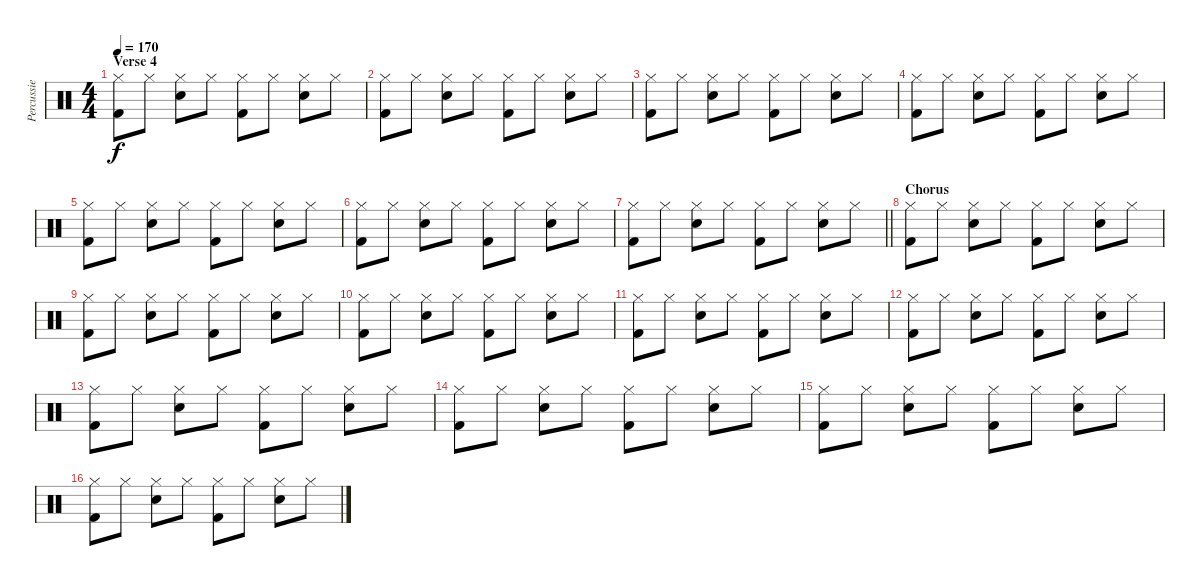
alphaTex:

\track ("Percussie" "Percussie") {instrument percussion}
\staff {score}
\articulation defaults
\ts (4 4)
\section ("" "Verse 4")
\tempo 170
\clef neutral
\ks c
("Hi-Hat (closed)" "Kick (hit) 2").8{dy f} "Hi-Hat (closed)".8 ("Hi-Hat (closed)" "Electric Snare (hit)").8 "Hi-Hat (closed)".8 ("Hi-Hat (closed)" "Kick (hit) 2").8 "Hi-Hat (closed)".8 ("Hi-Hat (closed)" "Electric Snare (hit)").8 "Hi-Hat (closed)".8 |
("Hi-Hat (closed)" "Kick (hit) 2").8 "Hi-Hat (closed)".8 ("Hi-Hat (closed)" "Electric Snare (hit)").8 "Hi-Hat (closed)".8 ("Hi-Hat (closed)" "Kick (hit) 2").8 "Hi-Hat (closed)".8 ("Hi-Hat (closed)" "Electric Snare (hit)").8 "Hi-Hat (closed)".8 |
("Hi-Hat (closed)" "Kick (hit) 2").8 "Hi-Hat (closed)".8 ("Hi-Hat (closed)" "Electric Snare (hit)").8 "Hi-Hat (closed)".8 ("Hi-Hat (closed)" "Kick (hit) 2").8 "Hi-Hat (closed)".8 ("Hi-Hat (closed)" "Electric Snare (hit)").8 "Hi-Hat (closed)".8 |
("Hi-Hat (closed)" "Kick (hit) 2").8 "Hi-Hat (closed)".8 ("Hi-Hat (closed)" "Electric Snare (hit)").8 "Hi-Hat (closed)".8 ("Hi-Hat (closed)" "Kick (hit) 2").8 "Hi-Hat (closed)".8 ("Hi-Hat (closed)" "Electric Snare (hit)").8 "Hi-Hat (closed)".8 |
("Hi-Hat (closed)" "Kick (hit) 2").8 "Hi-Hat (closed)".8 ("Hi-Hat (closed)" "Electric Snare (hit)").8 "Hi-Hat (closed)".8 ("Hi-Hat (closed)" "Kick (hit) 2").8 "Hi-Hat (closed)".8 ("Hi-Hat (closed)" "Electric Snare (hit)").8 "Hi-Hat (closed)".8 |
("Hi-Hat (closed)" "Kick (hit) 2").8 "Hi-Hat (closed)".8 ("Hi-Hat (closed)" "Electric Snare (hit)").8 "Hi-Hat (closed)".8 ("Hi-Hat (closed)" "Kick (hit) 2").8 "Hi-Hat (closed)".8 ("Hi-Hat (closed)" "Electric Snare (hit)").8 "Hi-Hat (closed)".8 |
\barLineRight lightlight
("Hi-Hat (closed)" "Kick (hit) 2").8 "Hi-Hat (closed)".8 ("Hi-Hat (closed)" "Electric Snare (hit)").8 "Hi-Hat (closed)".8 ("Hi-Hat (closed)" "Kick (hit) 2").8 "Hi-Hat (closed)".8 ("Hi-Hat (closed)" "Electric Snare (hit)").8 "Hi-Hat (closed)".8 |
\section ("" "Chorus")
("Hi-Hat (closed)" "Kick (hit) 2").8 "Hi-Hat (closed)".8 ("Hi-Hat (closed)" "Electric Snare (hit)").8 "Hi-Hat (closed)".8 ("Hi-Hat (closed)" "Kick (hit) 2").8 "Hi-Hat (closed)".8 ("Hi-Hat (closed)" "Electric Snare (hit)").8 "Hi-Hat (closed)".8 |
("Hi-Hat (closed)" "Kick (hit) 2").8 "Hi-Hat (closed)".8 ("Hi-Hat (closed)" "Electric Snare (hit)").8 "Hi-Hat (closed)".8 ("Hi-Hat (closed)" "Kick (hit) 2").8 "Hi-Hat (closed)".8 ("Hi-Hat (closed)" "Electric Snare (hit)").8 "Hi-Hat (closed)".8 |
("Hi-Hat (closed)" "Kick (hit) 2").8 "Hi-Hat (closed)".8 ("Hi-Hat (closed)" "Electric Snare (hit)").8 "Hi-Hat (closed)".8 ("Hi-Hat (closed)" "Kick (hit) 2").8 "Hi-Hat (closed)".8 ("Hi-Hat (closed)" "Electric Snare (hit)").8 "Hi-Hat (closed)".8 |
("Hi-Hat (closed)" "Kick (hit) 2").8 "Hi-Hat (closed)".8 ("Hi-Hat (closed)" "Electric Snare (hit)").8 "Hi-Hat (closed)".8 ("Hi-Hat (closed)" "Kick (hit) 2").8 "Hi-Hat (closed)".8 ("Hi-Hat (closed)" "Electric Snare (hit)").8 "Hi-Hat (closed)".8 |
("Hi-Hat (closed)" "Kick (hit) 2").8 "Hi-Hat (closed)".8 ("Hi-Hat (closed)" "Electric Snare (hit)").8 "Hi-Hat (closed)".8 ("Hi-Hat (closed)" "Kick (hit) 2").8 "Hi-Hat (closed)".8 ("Hi-Hat (closed)" "Electric Snare (hit)").8 "Hi-Hat (closed)".8 |
("Hi-Hat (closed)" "Kick (hit) 2").8 "Hi-Hat (closed)".8 ("Hi-Hat (closed)" "Electric Snare (hit)").8 "Hi-Hat (closed)".8 ("Hi-Hat (closed)" "Kick (hit) 2").8 "Hi-Hat (closed)".8 ("Hi-Hat (closed)" "Electric Snare (hit)").8 "Hi-Hat (closed)".8 |
("Hi-Hat (closed)" "Kick (hit) 2").8 "Hi-Hat (closed)".8 ("Hi-Hat (closed)" "Electric Snare (hit)").8 "Hi-Hat (closed)".8 ("Hi-Hat (closed)" "Kick (hit) 2").8 "Hi-Hat (closed)".8 ("Hi-Hat (closed)" "Electric Snare (hit)").8 "Hi-Hat (closed)".8 |
("Hi-Hat (closed)" "Kick (hit) 2").8 "Hi-Hat (closed)".8 ("Hi-Hat (closed)" "Electric Snare (hit)").8 "Hi-Hat (closed)".8 ("Hi-Hat (closed)" "Kick (hit) 2").8 "Hi-Hat (closed)".8 ("Hi-Hat (closed)" "Electric Snare (hit)").8 "Hi-Hat (closed)".8 |
("Hi-Hat (closed)" "Kick (hit) 2").8 "Hi-Hat (closed)".8 ("Hi-Hat (closed)" "Electric Snare (hit)").8 "Hi-Hat (closed)".8 ("Hi-Hat (closed)" "Kick (hit) 2").8 "Hi-Hat (closed)".8 ("Hi-Hat (closed)" "Electric Snare (hit)").8 "Hi-Hat (closed)".8
